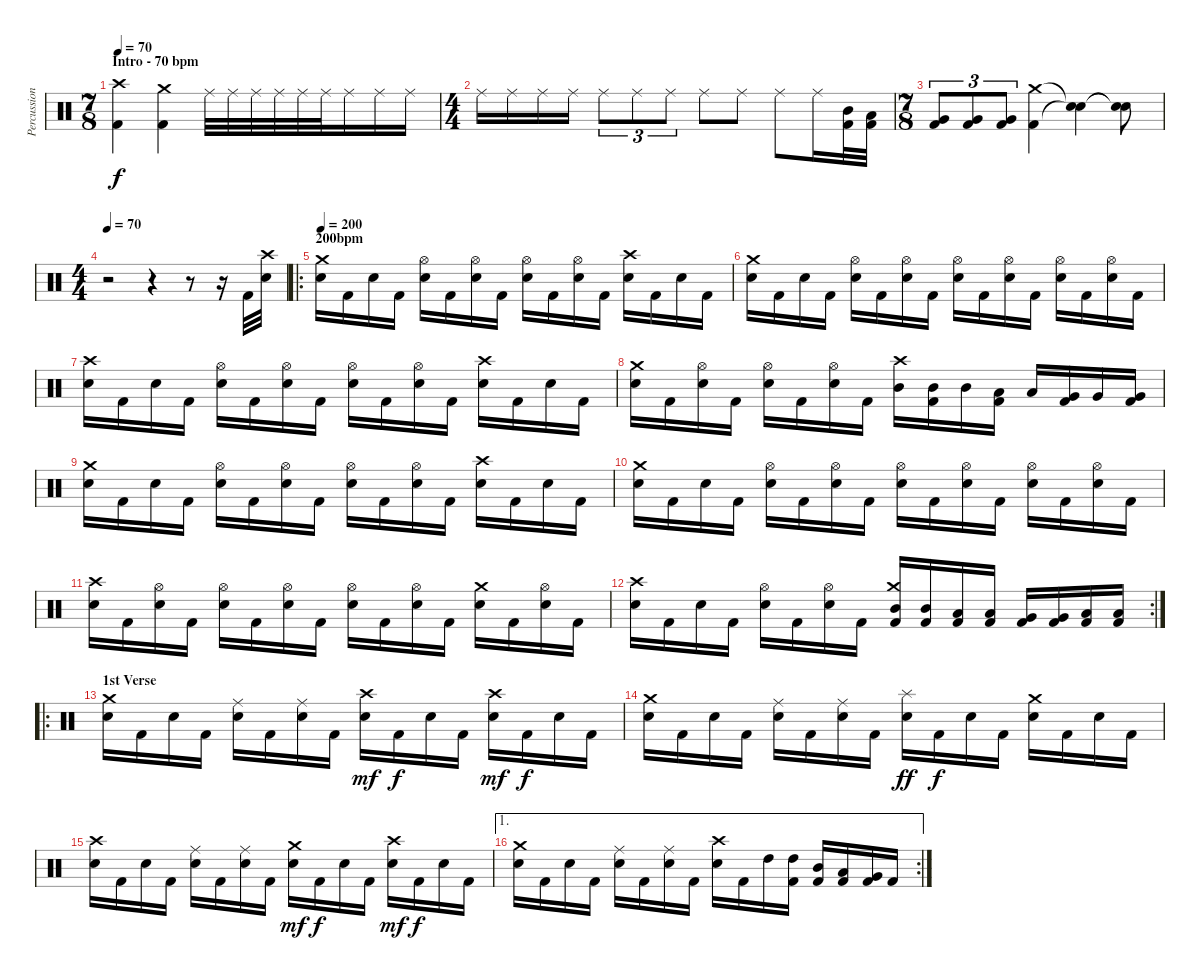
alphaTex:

\track ("Percussion" "Percussion") {instrument percussion}
\staff {score}
\articulation defaults
\ts (7 8)
\section ("" "Intro - 70 bpm")
\tempo 70
\clef neutral
\ks c
("Kick (hit) 2" "Crash high (hit)").4{dy f} ("Kick (hit) 2" "Crash medium (hit)").4 "Ride (middle)".32{volume 10} "Ride (middle)".32 "Ride (middle)".32 "Ride (middle)".32 "Ride (middle)".32 "Ride (middle)".32 "Ride (middle)".16 "Ride (middle)".16 "Ride (middle)".16 |
\ts (4 4)
"Ride (middle)".16 "Ride (middle)".16 "Ride (middle)".16 "Ride (middle)".16 "Ride (middle)".8{tu (3 2)} "Ride (middle)".8{tu (3 2)} "Ride (middle)".8{tu (3 2)} "Ride (middle)".8 "Ride (middle)".8 "Ride (middle)".8 "Ride (middle)".16 ("Kick (hit) 2" "Mid Tom (hit)").32{volume 16} ("Kick (hit) 2" "Low Tom (hit)").32 |
\ts (7 8)
("Kick (hit) 2" "Very Low Tom (hit)").8{tu (3 2)} ("Kick (hit) 2" "Very Low Tom (hit)").8{tu (3 2)} ("Kick (hit) 2" "Very Low Tom (hit)").8{tu (3 2)} ("Kick (hit) 2" "Crash medium (hit)").4 ("Snare (hit)"{t} "Snare (hit)"{t}).4 ("Snare (hit)"{t} "Snare (hit)"{t}).8 |
\ts (4 4)
\tempo 70
r.2 r.4 r.8 r.16 "Kick (hit) 2".32 ("Snare (hit) 2" "Crash high (hit)").32 |
\ro
\section ("" "200bpm")
\tempo 200
("Snare (hit) 2" "Crash medium (hit)").16 "Kick (hit) 2".16 "Snare (hit) 2".16 "Kick (hit) 2".16 ("Snare (hit) 2" "Hi-Hat (open)").16 "Kick (hit) 2".16 ("Snare (hit) 2" "Hi-Hat (open)").16 "Kick (hit) 2".16 ("Snare (hit) 2" "Hi-Hat (open)").16 "Kick (hit) 2".16 ("Snare (hit) 2" "Hi-Hat (open)").16 "Kick (hit) 2".16 ("Snare (hit) 2" "Crash high (hit)").16 "Kick (hit) 2".16 "Snare (hit) 2".16 "Kick (hit) 2".16 |
("Snare (hit) 2" "Crash medium (hit)").16 "Kick (hit) 2".16 "Snare (hit) 2".16 "Kick (hit) 2".16 ("Snare (hit) 2" "Hi-Hat (open)").16 "Kick (hit) 2".16 ("Snare (hit) 2" "Hi-Hat (open)").16 "Kick (hit) 2".16 ("Snare (hit) 2" "Hi-Hat (open)").16 "Kick (hit) 2".16 ("Snare (hit) 2" "Hi-Hat (open)").16 "Kick (hit) 2".16 ("Snare (hit) 2" "Hi-Hat (open)").16 "Kick (hit) 2".16 ("Snare (hit) 2" "Hi-Hat (open)").16 "Kick (hit) 2".16 |
("Snare (hit) 2" "Crash high (hit)").16 "Kick (hit) 2".16 "Snare (hit) 2".16 "Kick (hit) 2".16 ("Snare (hit) 2" "Hi-Hat (open)").16 "Kick (hit) 2".16 ("Snare (hit) 2" "Hi-Hat (open)").16 "Kick (hit) 2".16 ("Snare (hit) 2" "Hi-Hat (open)").16 "Kick (hit) 2".16 ("Snare (hit) 2" "Hi-Hat (open)").16 "Kick (hit) 2".16 ("Snare (hit) 2" "Crash high (hit)").16 "Kick (hit) 2".16 "Snare (hit) 2".16 "Kick (hit) 2".16 |
("Snare (hit) 2" "Crash medium (hit)").16 "Kick (hit) 2".16 ("Snare (hit) 2" "Hi-Hat (open)").16 "Kick (hit) 2".16 ("Snare (hit) 2" "Hi-Hat (open)").16 "Kick (hit) 2".16 ("Snare (hit) 2" "Hi-Hat (open)").16 "Kick (hit) 2".16 ("Mid Tom (hit)" "Crash high (hit)").16 ("Kick (hit) 2" "Mid Tom (hit)").16 "Mid Tom (hit)".16 ("Kick (hit) 2" "Low Tom (hit)").16 "Low Tom (hit)".16 ("Kick (hit) 2" "Very Low Tom (hit)").16 "Very Low Tom (hit)".16 ("Kick (hit) 2" "Very Low Tom (hit)").16 |
("Snare (hit) 2" "Crash medium (hit)").16 "Kick (hit) 2".16 "Snare (hit) 2".16 "Kick (hit) 2".16 ("Snare (hit) 2" "Hi-Hat (open)").16 "Kick (hit) 2".16 ("Snare (hit) 2" "Hi-Hat (open)").16 "Kick (hit) 2".16 ("Snare (hit) 2" "Hi-Hat (open)").16 "Kick (hit) 2".16 ("Snare (hit) 2" "Hi-Hat (open)").16 "Kick (hit) 2".16 ("Snare (hit) 2" "Crash high (hit)").16 "Kick (hit) 2".16 "Snare (hit) 2".16 "Kick (hit) 2".16 |
("Snare (hit) 2" "Crash medium (hit)").16 "Kick (hit) 2".16 "Snare (hit) 2".16 "Kick (hit) 2".16 ("Snare (hit) 2" "Hi-Hat (open)").16 "Kick (hit) 2".16 ("Snare (hit) 2" "Hi-Hat (open)").16 "Kick (hit) 2".16 ("Snare (hit) 2" "Hi-Hat (open)").16 "Kick (hit) 2".16 ("Snare (hit) 2" "Hi-Hat (open)").16 "Kick (hit) 2".16 ("Snare (hit) 2" "Hi-Hat (open)").16 "Kick (hit) 2".16 ("Snare (hit) 2" "Hi-Hat (open)").16 "Kick (hit) 2".16 |
("Snare (hit) 2" "Crash high (hit)").16 "Kick (hit) 2".16 ("Snare (hit) 2" "Hi-Hat (open)").16 "Kick (hit) 2".16 ("Snare (hit) 2" "Hi-Hat (open)").16 "Kick (hit) 2".16 ("Snare (hit) 2" "Hi-Hat (open)").16 "Kick (hit) 2".16 ("Snare (hit) 2" "Hi-Hat (open)").16 "Kick (hit) 2".16 ("Snare (hit) 2" "Hi-Hat (open)").16 "Kick (hit) 2".16 ("Snare (hit) 2" "Crash medium (hit)").16 "Kick (hit) 2".16 ("Snare (hit) 2" "Hi-Hat (open)").16 "Kick (hit) 2".16 |
\rc 2
("Snare (hit) 2" "Crash high (hit)").16 "Kick (hit) 2".16 "Snare (hit) 2".16 "Kick (hit) 2".16 ("Snare (hit) 2" "Hi-Hat (open)").16 "Kick (hit) 2".16 ("Snare (hit) 2" "Hi-Hat (open)").16 "Kick (hit) 2".16 ("Kick (hit) 2" "Mid Tom (hit)" "Crash medium (hit)").16 ("Kick (hit) 2" "Mid Tom (hit)").16 ("Kick (hit) 2" "Low Tom (hit)").16 ("Kick (hit) 2" "Low Tom (hit)").16 ("Kick (hit) 2" "Very Low Tom (hit)").16 ("Kick (hit) 2" "Very Low Tom (hit)").16 ("Kick (hit) 2" "Low Floor Tom (hit)").16 ("Kick (hit) 2" "Low Floor Tom (hit)").16 |
\ro
\section ("" "1st Verse")
("Snare (hit) 2" "Crash medium (hit)").16 "Kick (hit) 2".16 "Snare (hit) 2".16 "Kick (hit) 2".16 ("Snare (hit) 2" "Ride (middle)").16 "Kick (hit) 2".16 ("Snare (hit) 2" "Ride (middle)").16 "Kick (hit) 2".16 ("Snare (hit) 2" "Crash high (hit)").16{dy mf} "Kick (hit) 2".16{dy f} "Snare (hit) 2".16 "Kick (hit) 2".16 ("Snare (hit) 2" "Crash high (hit)").16{dy mf} "Kick (hit) 2".16{dy f} "Snare (hit) 2".16 "Kick (hit) 2".16 |
("Snare (hit) 2" "Crash medium (hit)").16 "Kick (hit) 2".16 "Snare (hit) 2".16 "Kick (hit) 2".16 ("Snare (hit) 2" "Ride (middle)").16 "Kick (hit) 2".16 ("Snare (hit) 2" "Ride (middle)").16 "Kick (hit) 2".16 ("Snare (hit) 2" "Splash (hit)").16{dy ff} "Kick (hit) 2".16{dy f} "Snare (hit) 2".16 "Kick (hit) 2".16 ("Snare (hit) 2" "Crash medium (hit)").16 "Kick (hit) 2".16 "Snare (hit) 2".16 "Kick (hit) 2".16 |
("Snare (hit) 2" "Crash high (hit)").16 "Kick (hit) 2".16 "Snare (hit) 2".16 "Kick (hit) 2".16 ("Snare (hit) 2" "Ride (middle)").16 "Kick (hit) 2".16 ("Snare (hit) 2" "Ride (middle)").16 "Kick (hit) 2".16 ("Snare (hit) 2" "Crash medium (hit)").16{dy mf} "Kick (hit) 2".16{dy f} "Snare (hit) 2".16 "Kick (hit) 2".16 ("Snare (hit) 2" "Crash high (hit)").16{dy mf} "Kick (hit) 2".16{dy f} "Snare (hit) 2".16 "Kick (hit) 2".16 |
\ae 1
\rc 2
("Snare (hit) 2" "Crash medium (hit)").16 "Kick (hit) 2".16 "Snare (hit) 2".16 "Kick (hit) 2".16 ("Snare (hit) 2" "Ride (middle)").16 "Kick (hit) 2".16 ("Snare (hit) 2" "Ride (middle)").16 "Kick (hit) 2".16 ("Snare (hit) 2" "Crash high (hit)").16 "Kick (hit) 2".16 "High Tom (hit)".16 ("Kick (hit) 2" "High Tom (hit)").16 ("Kick (hit) 2" "Mid Tom (hit)").16 ("Kick (hit) 2" "Low Tom (hit)").16 ("Kick (hit) 2" "Very Low Tom (hit)").16 "Kick (hit) 2".16
